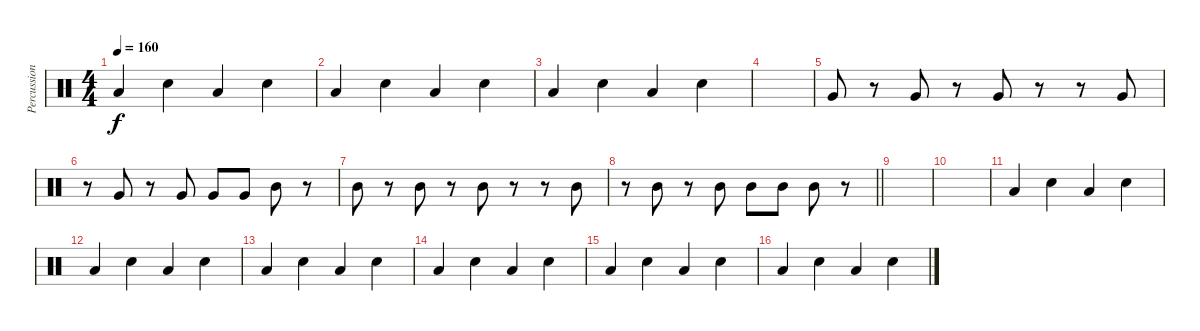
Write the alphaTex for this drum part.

\track ("Percussion" "Percussion") {instrument percussion}
\staff {score}
\articulation defaults
\ts (4 4)
\tempo 160
\clef neutral
\ks c "Low Tom (hit)".4{dy f} "Hand Clap (hit)".4 "Low Tom (hit)".4 "Hand Clap (hit)".4
|
"Low Tom (hit)".4 "Hand Clap (hit)".4 "Low Tom (hit)".4 "Hand Clap (hit)".4 |
"Low Tom (hit)".4 "Hand Clap (hit)".4 "Low Tom (hit)".4 "Hand Clap (hit)".4 |
|
"Very Low Tom (hit)".8 r.8 "Very Low Tom (hit)".8 r.8 "Very Low Tom (hit)".8 r.8 r.8 "Very Low Tom (hit)".8 |
r.8 "Very Low Tom (hit)".8 r.8 "Very Low Tom (hit)".8 "Very Low Tom (hit)".8 "Very Low Tom (hit)".8 "Mid Tom (hit)".8 r.8 |
"Mid Tom (hit)".8 r.8 "Mid Tom (hit)".8 r.8 "Mid Tom (hit)".8 r.8 r.8 "Mid Tom (hit)".8 |
\barLineRight lightlight
r.8 "Mid Tom (hit)".8 r.8 "Mid Tom (hit)".8 "Mid Tom (hit)".8 "Mid Tom (hit)".8 "Mid Tom (hit)".8 r.8 |
|
|
"Low Floor Tom (hit)".4 "Snare (hit) 2".4 "Low Floor Tom (hit)".4 "Snare (hit) 2".4 |
"Low Floor Tom (hit)".4 "Snare (hit) 2".4 "Low Floor Tom (hit)".4 "Snare (hit) 2".4 |
"Low Floor Tom (hit)".4 "Snare (hit) 2".4 "Low Floor Tom (hit)".4 "Snare (hit) 2".4 |
"Low Floor Tom (hit)".4 "Snare (hit) 2".4 "Low Floor Tom (hit)".4 "Snare (hit) 2".4 |
"Low Floor Tom (hit)".4 "Snare (hit) 2".4 "Low Floor Tom (hit)".4 "Snare (hit) 2".4 |
"Low Floor Tom (hit)".4 "Snare (hit) 2".4 "Low Floor Tom (hit)".4 "Snare (hit) 2".4
